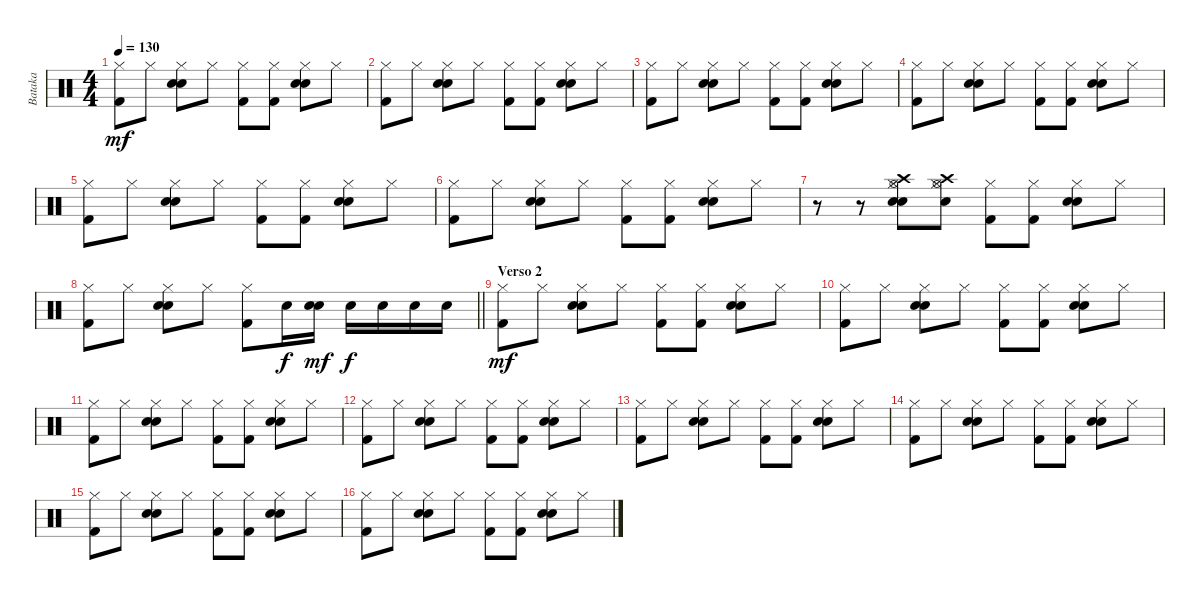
\track ("Bataka" "Bataka") {instrument percussion}
\staff
\articulation defaults
\ts (4 4)
\tempo 130
\clef neutral
\ks c
("Hi-Hat (closed)" "Kick (hit) 2").8{dy mf} "Hi-Hat (closed)".8 ("Hi-Hat (closed)" "Electric Snare (hit)" "Snare (hit) 2").8 "Hi-Hat (closed)".8 ("Hi-Hat (closed)" "Kick (hit) 2").8 ("Hi-Hat (closed)" "Kick (hit) 2").8 ("Hi-Hat (closed)" "Electric Snare (hit)" "Snare (hit) 2").8 "Hi-Hat (closed)".8 |
("Hi-Hat (closed)" "Kick (hit) 2").8 "Hi-Hat (closed)".8 ("Hi-Hat (closed)" "Electric Snare (hit)" "Snare (hit) 2").8 "Hi-Hat (closed)".8 ("Hi-Hat (closed)" "Kick (hit) 2").8 ("Hi-Hat (closed)" "Kick (hit) 2").8 ("Hi-Hat (closed)" "Electric Snare (hit)" "Snare (hit) 2").8 "Hi-Hat (closed)".8 |
("Hi-Hat (closed)" "Kick (hit) 2").8 "Hi-Hat (closed)".8 ("Hi-Hat (closed)" "Electric Snare (hit)" "Snare (hit) 2").8 "Hi-Hat (closed)".8 ("Hi-Hat (closed)" "Kick (hit) 2").8 ("Hi-Hat (closed)" "Kick (hit) 2").8 ("Hi-Hat (closed)" "Electric Snare (hit)" "Snare (hit) 2").8 "Hi-Hat (closed)".8 |
("Hi-Hat (closed)" "Kick (hit) 2").8 "Hi-Hat (closed)".8 ("Hi-Hat (closed)" "Electric Snare (hit)" "Snare (hit) 2").8 "Hi-Hat (closed)".8 ("Hi-Hat (closed)" "Kick (hit) 2").8 ("Hi-Hat (closed)" "Kick (hit) 2").8 ("Hi-Hat (closed)" "Electric Snare (hit)" "Snare (hit) 2").8 "Hi-Hat (closed)".8 |
("Hi-Hat (closed)" "Kick (hit) 2").8 "Hi-Hat (closed)".8 ("Hi-Hat (closed)" "Electric Snare (hit)" "Snare (hit) 2").8 "Hi-Hat (closed)".8 ("Hi-Hat (closed)" "Kick (hit) 2").8 ("Hi-Hat (closed)" "Kick (hit) 2").8 ("Hi-Hat (closed)" "Electric Snare (hit)" "Snare (hit) 2").8 "Hi-Hat (closed)".8 |
("Hi-Hat (closed)" "Kick (hit) 2").8 "Hi-Hat (closed)".8 ("Hi-Hat (closed)" "Electric Snare (hit)" "Snare (hit) 2").8 "Hi-Hat (closed)".8 ("Hi-Hat (closed)" "Kick (hit) 2").8 ("Hi-Hat (closed)" "Kick (hit) 2").8 ("Hi-Hat (closed)" "Electric Snare (hit)" "Snare (hit) 2").8 "Hi-Hat (closed)".8 |
r.8 r.8 ("Hi-Hat (closed)" "Hi-Hat (open)" "Electric Snare (hit)" "Snare (hit) 2" "Crash high (hit)").8 ("Hi-Hat (closed)" "Hi-Hat (open)" "Electric Snare (hit)" "Crash high (hit)").8 ("Hi-Hat (closed)" "Kick (hit) 2").8 ("Hi-Hat (closed)" "Kick (hit) 2").8 ("Hi-Hat (closed)" "Electric Snare (hit)" "Snare (hit) 2").8 "Hi-Hat (closed)".8 |
\barLineRight lightlight
("Hi-Hat (closed)" "Kick (hit) 2").8 "Hi-Hat (closed)".8 ("Hi-Hat (closed)" "Electric Snare (hit)" "Snare (hit) 2").8 "Hi-Hat (closed)".8 ("Hi-Hat (closed)" "Kick (hit) 2").8 "Electric Snare (hit)".16{dy f} ("Electric Snare (hit)" "Snare (hit) 2").16{dy mf} "Electric Snare (hit)".16{dy f} "Electric Snare (hit)".16 "Electric Snare (hit)".16 "Electric Snare (hit)".16 |
\section ("" "Verso 2")
("Hi-Hat (closed)" "Kick (hit) 2").8{dy mf} "Hi-Hat (closed)".8 ("Hi-Hat (closed)" "Electric Snare (hit)" "Snare (hit) 2").8 "Hi-Hat (closed)".8 ("Hi-Hat (closed)" "Kick (hit) 2").8 ("Hi-Hat (closed)" "Kick (hit) 2").8 ("Hi-Hat (closed)" "Electric Snare (hit)" "Snare (hit) 2").8 "Hi-Hat (closed)".8 |
("Hi-Hat (closed)" "Kick (hit) 2").8 "Hi-Hat (closed)".8 ("Hi-Hat (closed)" "Electric Snare (hit)" "Snare (hit) 2").8 "Hi-Hat (closed)".8 ("Hi-Hat (closed)" "Kick (hit) 2").8 ("Hi-Hat (closed)" "Kick (hit) 2").8 ("Hi-Hat (closed)" "Electric Snare (hit)" "Snare (hit) 2").8 "Hi-Hat (closed)".8 |
("Hi-Hat (closed)" "Kick (hit) 2").8 "Hi-Hat (closed)".8 ("Hi-Hat (closed)" "Electric Snare (hit)" "Snare (hit) 2").8 "Hi-Hat (closed)".8 ("Hi-Hat (closed)" "Kick (hit) 2").8 ("Hi-Hat (closed)" "Kick (hit) 2").8 ("Hi-Hat (closed)" "Electric Snare (hit)" "Snare (hit) 2").8 "Hi-Hat (closed)".8 |
("Hi-Hat (closed)" "Kick (hit) 2").8 "Hi-Hat (closed)".8 ("Hi-Hat (closed)" "Electric Snare (hit)" "Snare (hit) 2").8 "Hi-Hat (closed)".8 ("Hi-Hat (closed)" "Kick (hit) 2").8 ("Hi-Hat (closed)" "Kick (hit) 2").8 ("Hi-Hat (closed)" "Electric Snare (hit)" "Snare (hit) 2").8 "Hi-Hat (closed)".8 |
("Hi-Hat (closed)" "Kick (hit) 2").8 "Hi-Hat (closed)".8 ("Hi-Hat (closed)" "Electric Snare (hit)" "Snare (hit) 2").8 "Hi-Hat (closed)".8 ("Hi-Hat (closed)" "Kick (hit) 2").8 ("Hi-Hat (closed)" "Kick (hit) 2").8 ("Hi-Hat (closed)" "Electric Snare (hit)" "Snare (hit) 2").8 "Hi-Hat (closed)".8 |
("Hi-Hat (closed)" "Kick (hit) 2").8 "Hi-Hat (closed)".8 ("Hi-Hat (closed)" "Electric Snare (hit)" "Snare (hit) 2").8 "Hi-Hat (closed)".8 ("Hi-Hat (closed)" "Kick (hit) 2").8 ("Hi-Hat (closed)" "Kick (hit) 2").8 ("Hi-Hat (closed)" "Electric Snare (hit)" "Snare (hit) 2").8 "Hi-Hat (closed)".8 |
("Hi-Hat (closed)" "Kick (hit) 2").8 "Hi-Hat (closed)".8 ("Hi-Hat (closed)" "Electric Snare (hit)" "Snare (hit) 2").8 "Hi-Hat (closed)".8 ("Hi-Hat (closed)" "Kick (hit) 2").8 ("Hi-Hat (closed)" "Kick (hit) 2").8 ("Hi-Hat (closed)" "Electric Snare (hit)" "Snare (hit) 2").8 "Hi-Hat (closed)".8 |
("Hi-Hat (closed)" "Kick (hit) 2").8 "Hi-Hat (closed)".8 ("Hi-Hat (closed)" "Electric Snare (hit)" "Snare (hit) 2").8 "Hi-Hat (closed)".8 ("Hi-Hat (closed)" "Kick (hit) 2").8 ("Hi-Hat (closed)" "Kick (hit) 2").8 ("Hi-Hat (closed)" "Electric Snare (hit)" "Snare (hit) 2").8 "Hi-Hat (closed)".8
